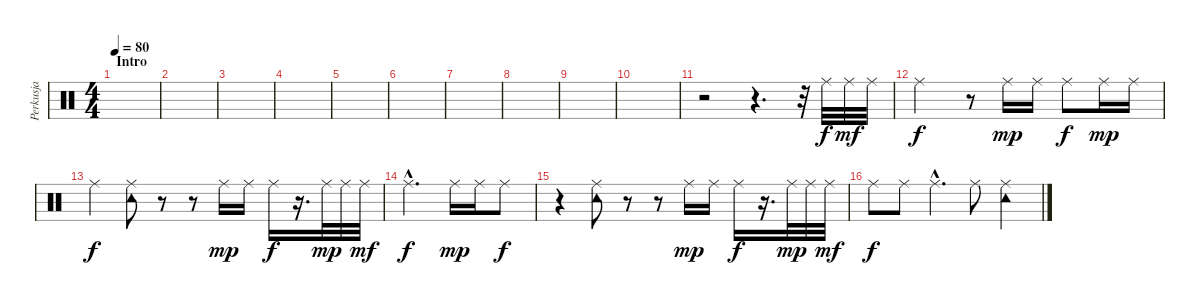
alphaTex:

\track ("Perkusja" "Perkusja") {instrument percussion}
\staff {score}
\articulation defaults
\ts (4 4)
\section ("" "Intro")
\tempo 80
\clef neutral
\ks c
|
|
|
|
|
|
|
|
|
|
r.2 r.4{d} r.32 "Ride (middle)".32 "Ride (middle)".32{dy mf} "Ride (middle)".32 |
"Ride (middle)".2{dy f} r.8 "Ride (middle)".16{dy mp} "Ride (middle)".16 "Ride (middle)".8{dy f} "Ride (middle)".16{dy mp} "Ride (middle)".16 |
"Ride (middle)".4{dy f} ("Tambourine (hit)" "Ride (middle)").8 r.8 r.8 "Ride (middle)".16{dy mp} "Ride (middle)".16 "Ride (middle)".16{dy f} r.16{d} "Ride (middle)".32{dy mp} "Ride (middle)".32 "Ride (middle)".32{dy mf} |
"Ride (middle)"{hac}.2{d dy f} "Ride (middle)".16{dy mp} "Ride (middle)".16 "Ride (middle)".8{dy f} |
r.4 ("Tambourine (hit)" "Ride (middle)").8 r.8 r.8 "Ride (middle)".16{dy mp} "Ride (middle)".16 "Ride (middle)".16{dy f} r.16{d} "Ride (middle)".32{dy mp} "Ride (middle)".32 "Ride (middle)".32{dy mf} |
"Ride (middle)".8{dy f} "Ride (middle)".8 "Ride (middle)"{hac}.4{d} "Ride (middle)".8 ("Tambourine (hit)" "Ride (middle)").4
